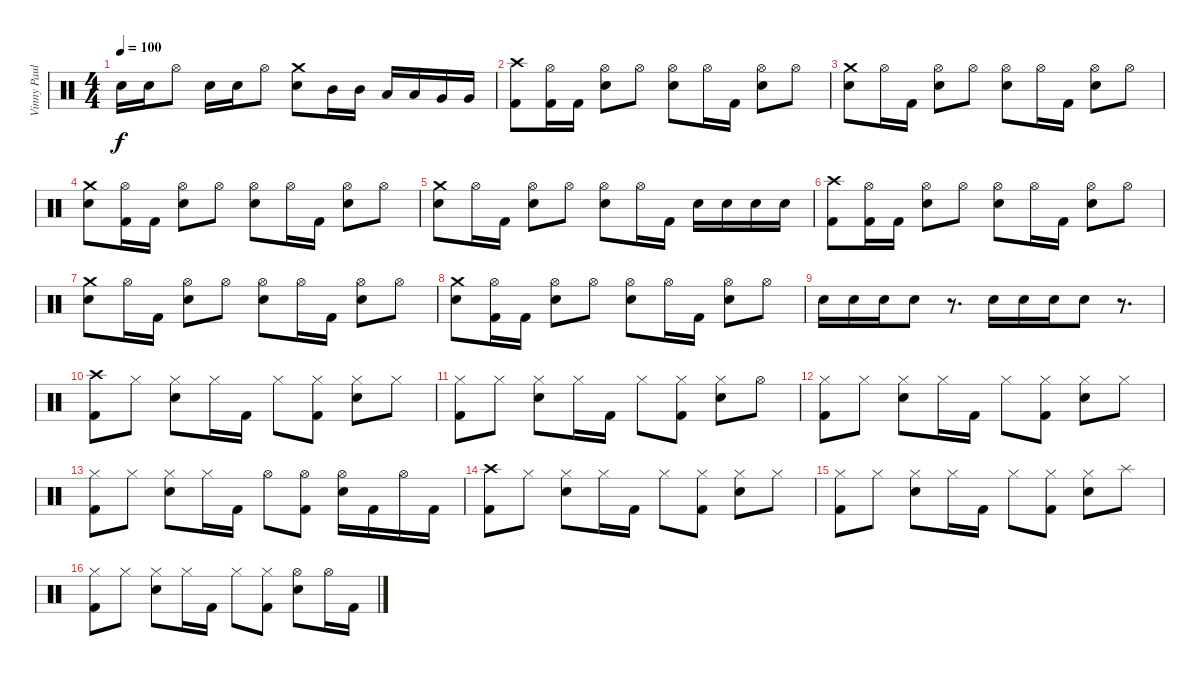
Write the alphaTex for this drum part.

\track ("Vinny Paul" "Vinny Paul") {instrument percussion}
\staff {score}
\articulation defaults
\ts (4 4)
\tempo 100
\clef neutral
\ks c "Snare (hit) 2".16{dy f} "Snare (hit) 2".16 "Hi-Hat (open)".8 "Snare (hit) 2".16 "Snare (hit) 2".16 "Hi-Hat (open)".8
("Crash medium (hit)" "Snare (hit) 2").8 "Mid Tom (hit)".16 "Mid Tom (hit)".16 "Low Tom (hit)".16 "Low Tom (hit)".16 "Very Low Tom (hit)".16 "Very Low Tom (hit)".16 |
("Crash high (hit)" "Kick (hit) 2").8 ("Hi-Hat (open)" "Kick (hit) 2").16 "Kick (hit) 2".16 ("Hi-Hat (open)" "Snare (hit) 2").8 "Hi-Hat (open)".8 ("Hi-Hat (open)" "Snare (hit) 2").8 "Hi-Hat (open)".16 "Kick (hit) 2".16 ("Hi-Hat (open)" "Snare (hit) 2").8 "Hi-Hat (open)".8 |
("Crash medium (hit)" "Snare (hit) 2").8 "Hi-Hat (open)".16 "Kick (hit) 2".16 ("Hi-Hat (open)" "Snare (hit) 2").8 "Hi-Hat (open)".8 ("Hi-Hat (open)" "Snare (hit) 2").8 "Hi-Hat (open)".16 "Kick (hit) 2".16 ("Hi-Hat (open)" "Snare (hit) 2").8 "Hi-Hat (open)".8 |
("Crash medium (hit)" "Snare (hit) 2").8 ("Hi-Hat (open)" "Kick (hit) 2").16 "Kick (hit) 2".16 ("Hi-Hat (open)" "Snare (hit) 2").8 "Hi-Hat (open)".8 ("Hi-Hat (open)" "Snare (hit) 2").8 "Hi-Hat (open)".16 "Kick (hit) 2".16 ("Hi-Hat (open)" "Snare (hit) 2").8 "Hi-Hat (open)".8 |
("Crash medium (hit)" "Snare (hit) 2").8 "Hi-Hat (open)".16 "Kick (hit) 2".16 ("Hi-Hat (open)" "Snare (hit) 2").8 "Hi-Hat (open)".8 ("Hi-Hat (open)" "Snare (hit) 2").8 "Hi-Hat (open)".16 "Kick (hit) 2".16 "Snare (hit) 2".16 "Snare (hit) 2".16 "Snare (hit) 2".16 "Snare (hit) 2".16 |
("Crash high (hit)" "Kick (hit) 2").8 ("Hi-Hat (open)" "Kick (hit) 2").16 "Kick (hit) 2".16 ("Hi-Hat (open)" "Snare (hit) 2").8 "Hi-Hat (open)".8 ("Hi-Hat (open)" "Snare (hit) 2").8 "Hi-Hat (open)".16 "Kick (hit) 2".16 ("Hi-Hat (open)" "Snare (hit) 2").8 "Hi-Hat (open)".8 |
("Crash medium (hit)" "Snare (hit) 2").8 "Hi-Hat (open)".16 "Kick (hit) 2".16 ("Hi-Hat (open)" "Snare (hit) 2").8 "Hi-Hat (open)".8 ("Hi-Hat (open)" "Snare (hit) 2").8 "Hi-Hat (open)".16 "Kick (hit) 2".16 ("Hi-Hat (open)" "Snare (hit) 2").8 "Hi-Hat (open)".8 |
("Crash medium (hit)" "Snare (hit) 2").8 ("Hi-Hat (open)" "Kick (hit) 2").16 "Kick (hit) 2".16 ("Hi-Hat (open)" "Snare (hit) 2").8 "Hi-Hat (open)".8 ("Hi-Hat (open)" "Snare (hit) 2").8 "Hi-Hat (open)".16 "Kick (hit) 2".16 ("Hi-Hat (open)" "Snare (hit) 2").8 "Hi-Hat (open)".8 |
"Snare (hit) 2".16 "Snare (hit) 2".16 "Snare (hit) 2".16 "Snare (hit) 2".8 r.8{d} "Snare (hit) 2".16 "Snare (hit) 2".16 "Snare (hit) 2".16 "Snare (hit) 2".8 r.8{d} |
("Crash high (hit)" "Kick (hit) 2").8 "Hi-Hat (closed)".8 ("Hi-Hat (closed)" "Snare (hit) 2").8 "Hi-Hat (closed)".16 "Kick (hit) 2".16 "Hi-Hat (closed)".8 ("Hi-Hat (closed)" "Kick (hit) 2").8 ("Hi-Hat (closed)" "Snare (hit) 2").8 "Hi-Hat (closed)".8 |
("Hi-Hat (closed)" "Kick (hit) 2").8 "Hi-Hat (closed)".8 ("Hi-Hat (closed)" "Snare (hit) 2").8 "Hi-Hat (closed)".16 "Kick (hit) 2".16 "Hi-Hat (closed)".8 ("Hi-Hat (closed)" "Kick (hit) 2").8 ("Hi-Hat (closed)" "Snare (hit) 2").8 "Hi-Hat (open)".8 |
("Hi-Hat (closed)" "Kick (hit) 2").8 "Hi-Hat (closed)".8 ("Hi-Hat (closed)" "Snare (hit) 2").8 "Hi-Hat (closed)".16 "Kick (hit) 2".16 "Hi-Hat (closed)".8 ("Hi-Hat (closed)" "Kick (hit) 2").8 ("Hi-Hat (closed)" "Snare (hit) 2").8 "Hi-Hat (closed)".8 |
("Hi-Hat (closed)" "Kick (hit) 2").8 "Hi-Hat (closed)".8 ("Hi-Hat (closed)" "Snare (hit) 2").8 "Hi-Hat (closed)".16 "Kick (hit) 2".16 "Hi-Hat (open)".8 ("Hi-Hat (open)" "Kick (hit) 2").8 ("Hi-Hat (open)" "Snare (hit) 2").16 "Kick (hit) 2".16 "Hi-Hat (open)".16 "Kick (hit) 2".16 |
("Crash high (hit)" "Kick (hit) 2").8 "Hi-Hat (closed)".8 ("Hi-Hat (closed)" "Snare (hit) 2").8 "Hi-Hat (closed)".16 "Kick (hit) 2".16 "Hi-Hat (closed)".8 ("Hi-Hat (closed)" "Kick (hit) 2").8 ("Hi-Hat (closed)" "Snare (hit) 2").8 "Hi-Hat (closed)".8 |
("Hi-Hat (closed)" "Kick (hit) 2").8 "Hi-Hat (closed)".8 ("Hi-Hat (closed)" "Snare (hit) 2").8 "Hi-Hat (closed)".16 "Kick (hit) 2".16 "Hi-Hat (closed)".8 ("Hi-Hat (closed)" "Kick (hit) 2").8 ("Hi-Hat (closed)" "Snare (hit) 2").8 "Splash (hit)".8 |
("Hi-Hat (closed)" "Kick (hit) 2").8 "Hi-Hat (closed)".8 ("Hi-Hat (closed)" "Snare (hit) 2").8 "Hi-Hat (closed)".16 "Kick (hit) 2".16 "Hi-Hat (closed)".8 ("Hi-Hat (closed)" "Kick (hit) 2").8 ("Hi-Hat (open)" "Snare (hit) 2").8 "Hi-Hat (open)".16 "Kick (hit) 2".16
